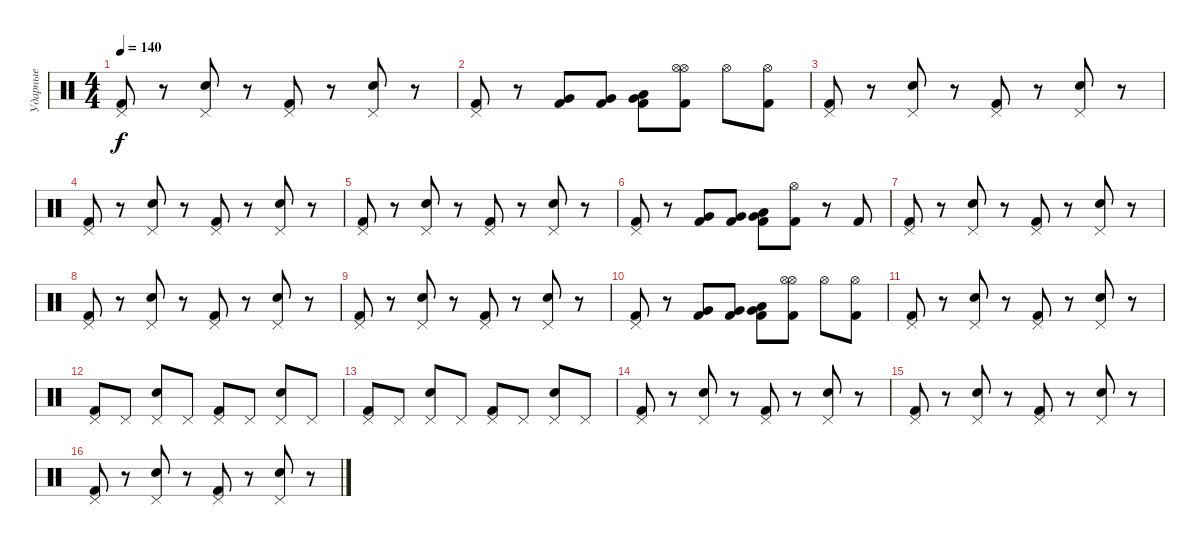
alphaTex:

\track ("Ударные" "Ударные") {instrument percussion}
\staff
\articulation defaults
\ts (4 4)
\tempo 140
\clef neutral
\ks c
("Pedal Hi-Hat (hit)" "Kick (hit) 2").8{dy f} r.8 ("Pedal Hi-Hat (hit)" "Snare (hit) 2").8 r.8 ("Pedal Hi-Hat (hit)" "Kick (hit) 2").8 r.8 ("Pedal Hi-Hat (hit)" "Snare (hit) 2").8 r.8 |
("Pedal Hi-Hat (hit)" "Kick (hit) 2").8 r.8 ("Very Low Tom (hit)" "Kick (hit) 2").8 ("Very Low Tom (hit)" "Kick (hit) 2").8 ("Very Low Tom (hit)" "Low Tom (hit)" "Kick (hit) 2").8 ("Hi-Hat (open)" "Hi-Hat (open)" "Kick (hit) 2").8 "Hi-Hat (open)".8 ("Hi-Hat (open)" "Kick (hit) 2").8 |
("Pedal Hi-Hat (hit)" "Kick (hit) 2").8 r.8 ("Pedal Hi-Hat (hit)" "Snare (hit) 2").8 r.8 ("Pedal Hi-Hat (hit)" "Kick (hit) 2").8 r.8 ("Pedal Hi-Hat (hit)" "Snare (hit) 2").8 r.8 |
("Pedal Hi-Hat (hit)" "Kick (hit) 2").8 r.8 ("Pedal Hi-Hat (hit)" "Snare (hit) 2").8 r.8 ("Pedal Hi-Hat (hit)" "Kick (hit) 2").8 r.8 ("Pedal Hi-Hat (hit)" "Snare (hit) 2").8 r.8 |
("Pedal Hi-Hat (hit)" "Kick (hit) 2").8 r.8 ("Pedal Hi-Hat (hit)" "Snare (hit) 2").8 r.8 ("Pedal Hi-Hat (hit)" "Kick (hit) 2").8 r.8 ("Pedal Hi-Hat (hit)" "Snare (hit) 2").8 r.8 |
("Pedal Hi-Hat (hit)" "Kick (hit) 2").8 r.8 ("Very Low Tom (hit)" "Kick (hit) 2").8 ("Very Low Tom (hit)" "Kick (hit) 2").8 ("Very Low Tom (hit)" "Low Tom (hit)" "Kick (hit) 2").8 ("Hi-Hat (open)" "Kick (hit) 2").8 r.8 "Kick (hit) 2".8 |
("Pedal Hi-Hat (hit)" "Kick (hit) 2").8 r.8 ("Pedal Hi-Hat (hit)" "Snare (hit) 2").8 r.8 ("Pedal Hi-Hat (hit)" "Kick (hit) 2").8 r.8 ("Pedal Hi-Hat (hit)" "Snare (hit) 2").8 r.8 |
("Pedal Hi-Hat (hit)" "Kick (hit) 2").8 r.8 ("Pedal Hi-Hat (hit)" "Snare (hit) 2").8 r.8 ("Pedal Hi-Hat (hit)" "Kick (hit) 2").8 r.8 ("Pedal Hi-Hat (hit)" "Snare (hit) 2").8 r.8 |
("Pedal Hi-Hat (hit)" "Kick (hit) 2").8 r.8 ("Pedal Hi-Hat (hit)" "Snare (hit) 2").8 r.8 ("Pedal Hi-Hat (hit)" "Kick (hit) 2").8 r.8 ("Pedal Hi-Hat (hit)" "Snare (hit) 2").8 r.8 |
("Pedal Hi-Hat (hit)" "Kick (hit) 2").8 r.8 ("Very Low Tom (hit)" "Kick (hit) 2").8 ("Very Low Tom (hit)" "Kick (hit) 2").8 ("Very Low Tom (hit)" "Low Tom (hit)" "Kick (hit) 2").8 ("Hi-Hat (open)" "Hi-Hat (open)" "Kick (hit) 2").8 "Hi-Hat (open)".8 ("Hi-Hat (open)" "Kick (hit) 2").8 |
("Pedal Hi-Hat (hit)" "Kick (hit) 2").8 r.8 ("Pedal Hi-Hat (hit)" "Snare (hit) 2").8 r.8 ("Pedal Hi-Hat (hit)" "Kick (hit) 2").8 r.8 ("Pedal Hi-Hat (hit)" "Snare (hit) 2").8 r.8 |
("Pedal Hi-Hat (hit)" "Kick (hit) 2").8 "Pedal Hi-Hat (hit)".8 ("Pedal Hi-Hat (hit)" "Snare (hit) 2").8 "Pedal Hi-Hat (hit)".8 ("Pedal Hi-Hat (hit)" "Kick (hit) 2").8 "Pedal Hi-Hat (hit)".8 ("Pedal Hi-Hat (hit)" "Snare (hit) 2").8 "Pedal Hi-Hat (hit)".8 |
("Pedal Hi-Hat (hit)" "Kick (hit) 2").8 "Pedal Hi-Hat (hit)".8 ("Pedal Hi-Hat (hit)" "Snare (hit) 2").8 "Pedal Hi-Hat (hit)".8 ("Pedal Hi-Hat (hit)" "Kick (hit) 2").8 "Pedal Hi-Hat (hit)".8 ("Pedal Hi-Hat (hit)" "Snare (hit) 2").8 "Pedal Hi-Hat (hit)".8 |
("Pedal Hi-Hat (hit)" "Kick (hit) 2").8 r.8 ("Pedal Hi-Hat (hit)" "Snare (hit) 2").8 r.8 ("Pedal Hi-Hat (hit)" "Kick (hit) 2").8 r.8 ("Pedal Hi-Hat (hit)" "Snare (hit) 2").8 r.8 |
("Pedal Hi-Hat (hit)" "Kick (hit) 2").8 r.8 ("Pedal Hi-Hat (hit)" "Snare (hit) 2").8 r.8 ("Pedal Hi-Hat (hit)" "Kick (hit) 2").8 r.8 ("Pedal Hi-Hat (hit)" "Snare (hit) 2").8 r.8 |
("Pedal Hi-Hat (hit)" "Kick (hit) 2").8 r.8 ("Pedal Hi-Hat (hit)" "Snare (hit) 2").8 r.8 ("Pedal Hi-Hat (hit)" "Kick (hit) 2").8 r.8 ("Pedal Hi-Hat (hit)" "Snare (hit) 2").8 r.8
